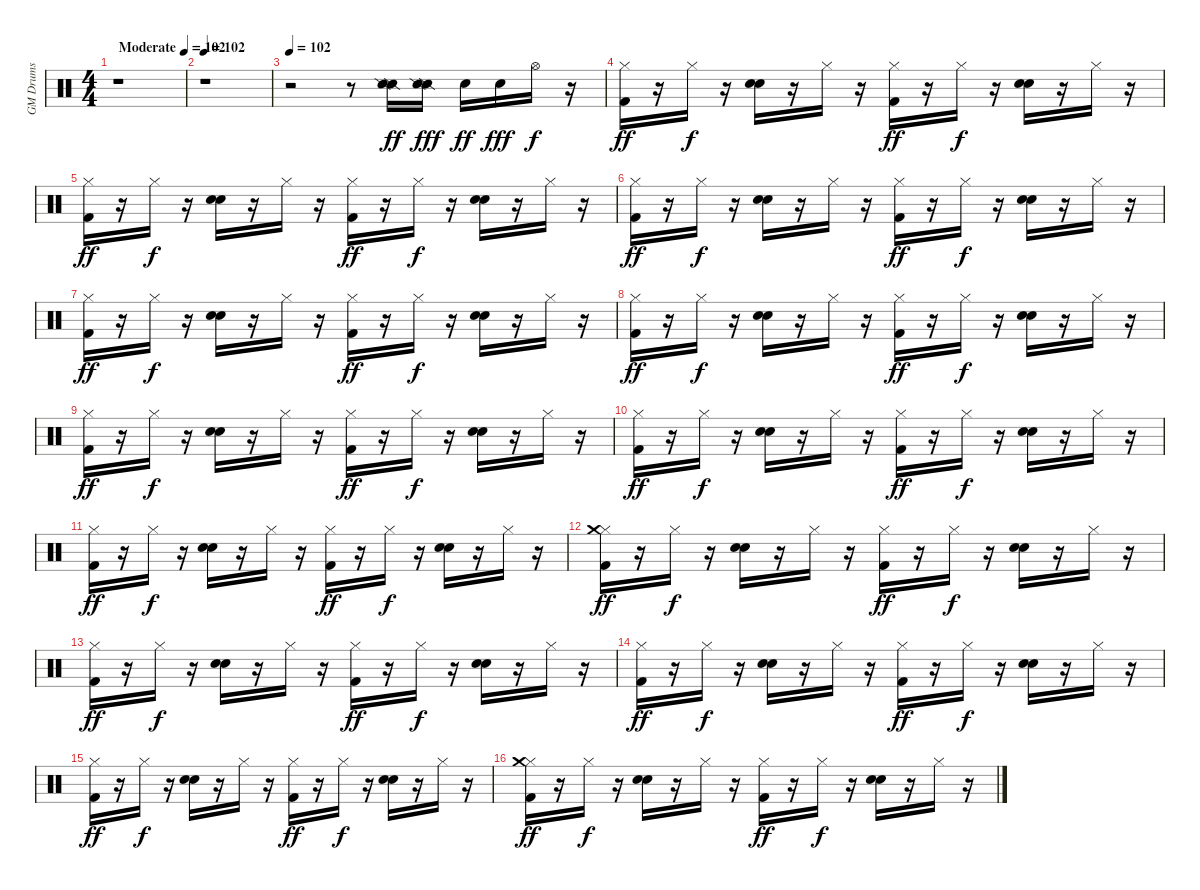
\track ("GM Drums" "GM Drums") {instrument percussion}
\staff {score}
\articulation defaults
\ts (4 4)
\tempo (102 "Moderate")
\clef neutral
\ks c
r.1{dy ff} |
\tempo 102
r.1 |
\tempo 102
r.2 r.8 ("Snare (side stick) 2" "Snare (side stick) 2").16 ("Snare (side stick) 2" "Snare (side stick) 2").16{dy fff} "Metronome (bell)".16{dy ff} "Metronome (bell)".16{dy fff} "Hi-Hat (open)".16{dy f} r.16 |
("Kick (hit) 2" "Hi-Hat (closed)").16{dy ff} r.16 "Hi-Hat (closed)".16{dy f} r.16 ("Metronome (bell)" "Hand Clap (hit)").16 r.16 "Hi-Hat (closed)".16 r.16 ("Kick (hit) 2" "Hi-Hat (closed)").16{dy ff} r.16 "Hi-Hat (closed)".16{dy f} r.16 ("Metronome (bell)" "Hand Clap (hit)").16 r.16 "Hi-Hat (closed)".16 r.16 |
("Kick (hit) 2" "Hi-Hat (closed)").16{dy ff} r.16 "Hi-Hat (closed)".16{dy f} r.16 ("Metronome (bell)" "Hand Clap (hit)").16 r.16 "Hi-Hat (closed)".16 r.16 ("Kick (hit) 2" "Hi-Hat (closed)").16{dy ff} r.16 "Hi-Hat (closed)".16{dy f} r.16 ("Metronome (bell)" "Hand Clap (hit)").16 r.16 "Hi-Hat (closed)".16 r.16 |
("Kick (hit) 2" "Hi-Hat (closed)").16{dy ff} r.16 "Hi-Hat (closed)".16{dy f} r.16 ("Metronome (bell)" "Hand Clap (hit)").16 r.16 "Hi-Hat (closed)".16 r.16 ("Kick (hit) 2" "Hi-Hat (closed)").16{dy ff} r.16 "Hi-Hat (closed)".16{dy f} r.16 ("Metronome (bell)" "Hand Clap (hit)").16 r.16 "Hi-Hat (closed)".16 r.16 |
("Kick (hit) 2" "Hi-Hat (closed)").16{dy ff} r.16 "Hi-Hat (closed)".16{dy f} r.16 ("Metronome (bell)" "Hand Clap (hit)").16 r.16 "Hi-Hat (closed)".16 r.16 ("Kick (hit) 2" "Hi-Hat (closed)").16{dy ff} r.16 "Hi-Hat (closed)".16{dy f} r.16 ("Metronome (bell)" "Hand Clap (hit)").16 r.16 "Hi-Hat (closed)".16 r.16 |
("Kick (hit) 2" "Hi-Hat (closed)").16{dy ff} r.16 "Hi-Hat (closed)".16{dy f} r.16 ("Metronome (bell)" "Hand Clap (hit)").16 r.16 "Hi-Hat (closed)".16 r.16 ("Kick (hit) 2" "Hi-Hat (closed)").16{dy ff} r.16 "Hi-Hat (closed)".16{dy f} r.16 ("Metronome (bell)" "Hand Clap (hit)").16 r.16 "Hi-Hat (closed)".16 r.16 |
("Kick (hit) 2" "Hi-Hat (closed)").16{dy ff} r.16 "Hi-Hat (closed)".16{dy f} r.16 ("Metronome (bell)" "Hand Clap (hit)").16 r.16 "Hi-Hat (closed)".16 r.16 ("Kick (hit) 2" "Hi-Hat (closed)").16{dy ff} r.16 "Hi-Hat (closed)".16{dy f} r.16 ("Metronome (bell)" "Hand Clap (hit)").16 r.16 "Hi-Hat (closed)".16 r.16 |
("Kick (hit) 2" "Hi-Hat (closed)").16{dy ff} r.16 "Hi-Hat (closed)".16{dy f} r.16 ("Metronome (bell)" "Hand Clap (hit)").16 r.16 "Hi-Hat (closed)".16 r.16 ("Kick (hit) 2" "Hi-Hat (closed)").16{dy ff} r.16 "Hi-Hat (closed)".16{dy f} r.16 ("Metronome (bell)" "Hand Clap (hit)").16 r.16 "Hi-Hat (closed)".16 r.16 |
("Kick (hit) 2" "Hi-Hat (closed)").16{dy ff} r.16 "Hi-Hat (closed)".16{dy f} r.16 ("Metronome (bell)" "Hand Clap (hit)").16 r.16 "Hi-Hat (closed)".16 r.16 ("Kick (hit) 2" "Hi-Hat (closed)").16{dy ff} r.16 "Hi-Hat (closed)".16{dy f} r.16 ("Metronome (bell)" "Hand Clap (hit)").16 r.16 "Hi-Hat (closed)".16 r.16 |
("Kick (hit) 2" "Hi-Hat (closed)" "Crash medium (hit)").16{dy ff} r.16 "Hi-Hat (closed)".16{dy f} r.16 ("Metronome (bell)" "Hand Clap (hit)").16 r.16 "Hi-Hat (closed)".16 r.16 ("Kick (hit) 2" "Hi-Hat (closed)").16{dy ff} r.16 "Hi-Hat (closed)".16{dy f} r.16 ("Metronome (bell)" "Hand Clap (hit)").16 r.16 "Hi-Hat (closed)".16 r.16 |
("Kick (hit) 2" "Hi-Hat (closed)").16{dy ff} r.16 "Hi-Hat (closed)".16{dy f} r.16 ("Metronome (bell)" "Hand Clap (hit)").16 r.16 "Hi-Hat (closed)".16 r.16 ("Kick (hit) 2" "Hi-Hat (closed)").16{dy ff} r.16 "Hi-Hat (closed)".16{dy f} r.16 ("Metronome (bell)" "Hand Clap (hit)").16 r.16 "Hi-Hat (closed)".16 r.16 |
("Kick (hit) 2" "Hi-Hat (closed)").16{dy ff} r.16 "Hi-Hat (closed)".16{dy f} r.16 ("Metronome (bell)" "Hand Clap (hit)").16 r.16 "Hi-Hat (closed)".16 r.16 ("Kick (hit) 2" "Hi-Hat (closed)").16{dy ff} r.16 "Hi-Hat (closed)".16{dy f} r.16 ("Metronome (bell)" "Hand Clap (hit)").16 r.16 "Hi-Hat (closed)".16 r.16 |
("Kick (hit) 2" "Hi-Hat (closed)").16{dy ff} r.16 "Hi-Hat (closed)".16{dy f} r.16 ("Metronome (bell)" "Hand Clap (hit)").16 r.16 "Hi-Hat (closed)".16 r.16 ("Kick (hit) 2" "Hi-Hat (closed)").16{dy ff} r.16 "Hi-Hat (closed)".16{dy f} r.16 ("Metronome (bell)" "Hand Clap (hit)").16 r.16 "Hi-Hat (closed)".16 r.16 |
("Kick (hit) 2" "Hi-Hat (closed)" "Crash medium (hit)").16{dy ff} r.16 "Hi-Hat (closed)".16{dy f} r.16 ("Metronome (bell)" "Hand Clap (hit)").16 r.16 "Hi-Hat (closed)".16 r.16 ("Kick (hit) 2" "Hi-Hat (closed)").16{dy ff} r.16 "Hi-Hat (closed)".16{dy f} r.16 ("Metronome (bell)" "Hand Clap (hit)").16 r.16 "Hi-Hat (closed)".16 r.16
